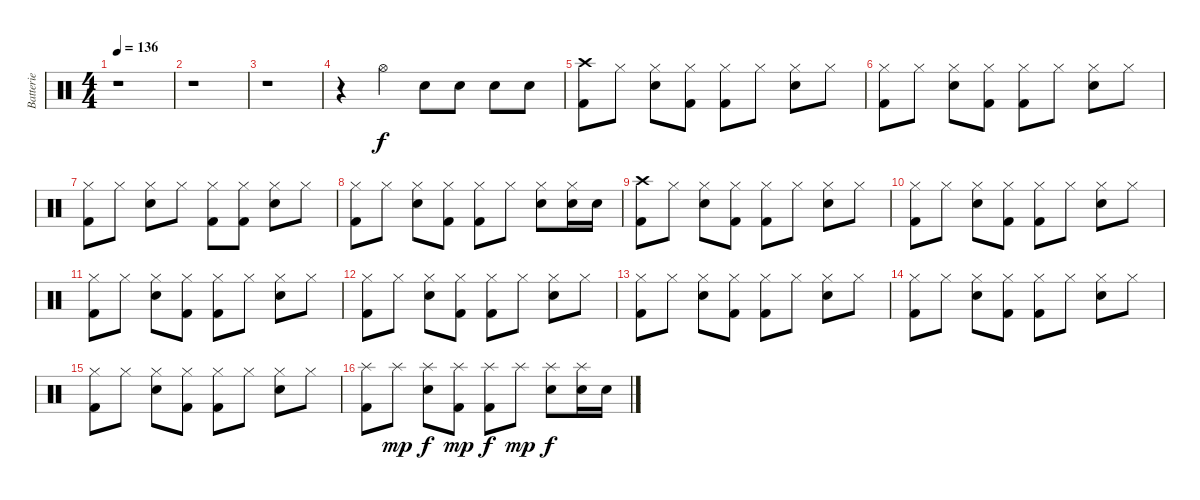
\track ("Batterie" "Batterie") {instrument percussion}
\staff {score}
\articulation defaults
\ts (4 4)
\tempo 136
\clef neutral
\ks c
r.1{dy f} |
r.1 |
r.1 |
r.4 "Hi-Hat (open)".4 "Electric Snare (hit)".8 "Electric Snare (hit)".8 "Electric Snare (hit)".8 "Electric Snare (hit)".8 |
("Crash high (hit)" "Kick (hit) 2").8 "Hi-Hat (closed)".8 ("Hi-Hat (closed)" "Electric Snare (hit)").8 ("Hi-Hat (closed)" "Kick (hit) 2").8 ("Hi-Hat (closed)" "Kick (hit) 2").8 "Hi-Hat (closed)".8 ("Hi-Hat (closed)" "Electric Snare (hit)").8 "Hi-Hat (closed)".8 |
("Hi-Hat (closed)" "Kick (hit) 2").8 "Hi-Hat (closed)".8 ("Hi-Hat (closed)" "Electric Snare (hit)").8 ("Hi-Hat (closed)" "Kick (hit) 2").8 ("Hi-Hat (closed)" "Kick (hit) 2").8 "Hi-Hat (closed)".8 ("Hi-Hat (closed)" "Electric Snare (hit)").8 "Hi-Hat (closed)".8 |
("Hi-Hat (closed)" "Kick (hit) 2").8 "Hi-Hat (closed)".8 ("Hi-Hat (closed)" "Electric Snare (hit)").8 "Hi-Hat (closed)".8 ("Hi-Hat (closed)" "Kick (hit) 2").8 ("Hi-Hat (closed)" "Kick (hit) 2").8 ("Hi-Hat (closed)" "Electric Snare (hit)").8 "Hi-Hat (closed)".8 |
("Hi-Hat (closed)" "Kick (hit) 2").8 "Hi-Hat (closed)".8 ("Hi-Hat (closed)" "Electric Snare (hit)").8 ("Hi-Hat (closed)" "Kick (hit) 2").8 ("Hi-Hat (closed)" "Kick (hit) 2").8 "Hi-Hat (closed)".8 ("Hi-Hat (closed)" "Electric Snare (hit)").8 ("Hi-Hat (closed)" "Electric Snare (hit)").16 "Electric Snare (hit)".16 |
("Crash high (hit)" "Kick (hit) 2").8 "Hi-Hat (closed)".8 ("Hi-Hat (closed)" "Electric Snare (hit)").8 ("Hi-Hat (closed)" "Kick (hit) 2").8 ("Hi-Hat (closed)" "Kick (hit) 2").8 "Hi-Hat (closed)".8 ("Hi-Hat (closed)" "Electric Snare (hit)").8 "Hi-Hat (closed)".8 |
("Hi-Hat (closed)" "Kick (hit) 2").8 "Hi-Hat (closed)".8 ("Hi-Hat (closed)" "Electric Snare (hit)").8 ("Hi-Hat (closed)" "Kick (hit) 2").8 ("Hi-Hat (closed)" "Kick (hit) 2").8 "Hi-Hat (closed)".8 ("Hi-Hat (closed)" "Electric Snare (hit)").8 "Hi-Hat (closed)".8 |
("Hi-Hat (closed)" "Kick (hit) 2").8 "Hi-Hat (closed)".8 ("Hi-Hat (closed)" "Electric Snare (hit)").8 ("Hi-Hat (closed)" "Kick (hit) 2").8 ("Hi-Hat (closed)" "Kick (hit) 2").8 "Hi-Hat (closed)".8 ("Hi-Hat (closed)" "Electric Snare (hit)").8 "Hi-Hat (closed)".8 |
("Hi-Hat (closed)" "Kick (hit) 2").8 "Hi-Hat (closed)".8 ("Hi-Hat (closed)" "Electric Snare (hit)").8 ("Hi-Hat (closed)" "Kick (hit) 2").8 ("Hi-Hat (closed)" "Kick (hit) 2").8 "Hi-Hat (closed)".8 ("Hi-Hat (closed)" "Electric Snare (hit)").8 "Hi-Hat (closed)".8 |
("Hi-Hat (closed)" "Kick (hit) 2").8 "Hi-Hat (closed)".8 ("Hi-Hat (closed)" "Electric Snare (hit)").8 ("Hi-Hat (closed)" "Kick (hit) 2").8 ("Hi-Hat (closed)" "Kick (hit) 2").8 "Hi-Hat (closed)".8 ("Hi-Hat (closed)" "Electric Snare (hit)").8 "Hi-Hat (closed)".8 |
("Hi-Hat (closed)" "Kick (hit) 2").8 "Hi-Hat (closed)".8 ("Hi-Hat (closed)" "Electric Snare (hit)").8 ("Hi-Hat (closed)" "Kick (hit) 2").8 ("Hi-Hat (closed)" "Kick (hit) 2").8 "Hi-Hat (closed)".8 ("Hi-Hat (closed)" "Electric Snare (hit)").8 "Hi-Hat (closed)".8 |
("Hi-Hat (closed)" "Kick (hit) 2").8 "Hi-Hat (closed)".8 ("Hi-Hat (closed)" "Electric Snare (hit)").8 ("Hi-Hat (closed)" "Kick (hit) 2").8 ("Hi-Hat (closed)" "Kick (hit) 2").8 "Hi-Hat (closed)".8 ("Hi-Hat (closed)" "Electric Snare (hit)").8 "Hi-Hat (closed)".8 |
("Splash (hit)" "Kick (hit) 2").8 "Splash (hit)".8{dy mp} ("Splash (hit)" "Electric Snare (hit)").8{dy f} ("Splash (hit)" "Kick (hit) 2").8{dy mp} ("Splash (hit)" "Kick (hit) 2").8{dy f} "Splash (hit)".8{dy mp} ("Splash (hit)" "Electric Snare (hit)").8{dy f} ("Splash (hit)" "Electric Snare (hit)").16 "Electric Snare (hit)".16
